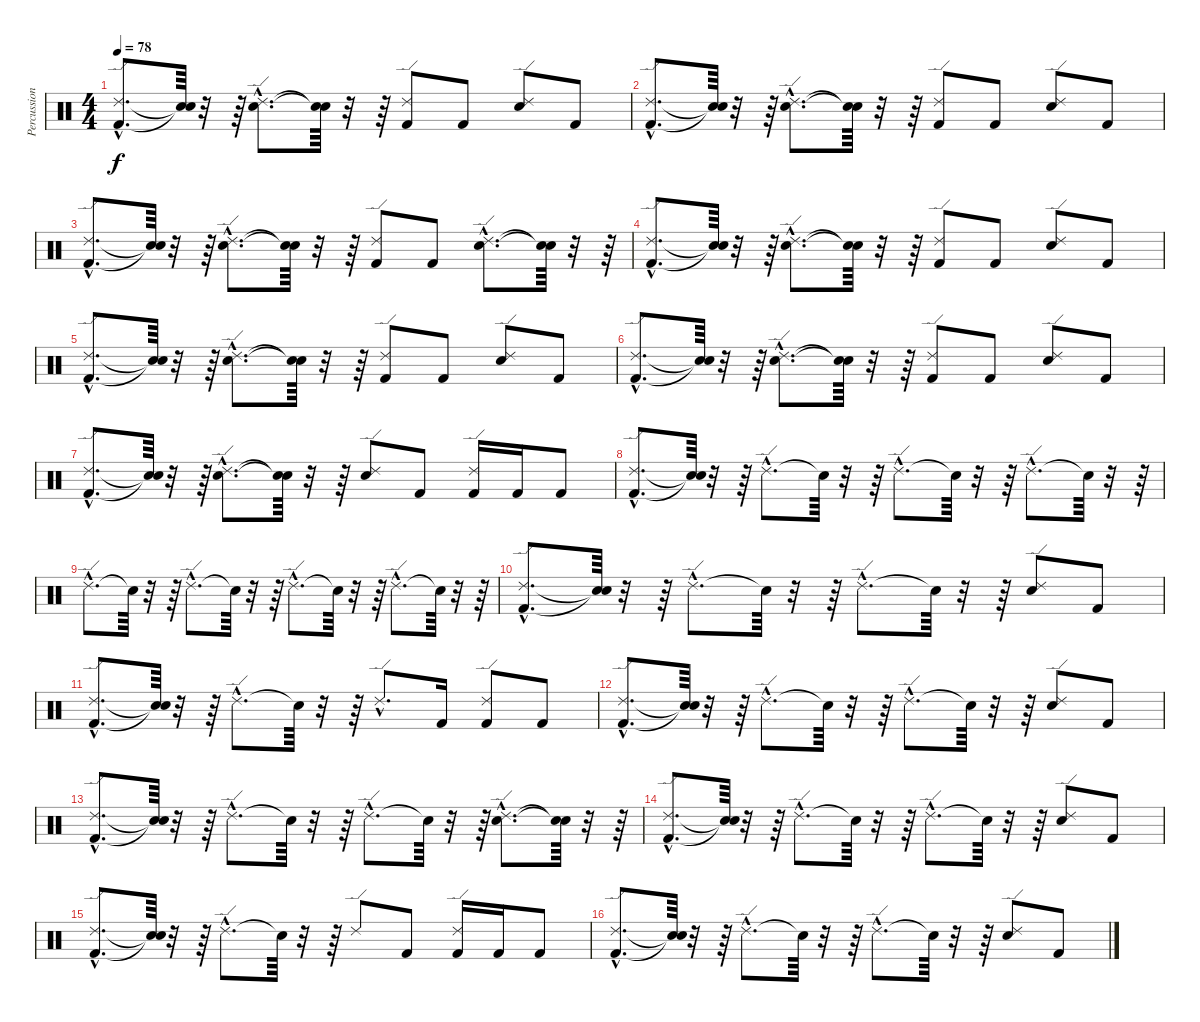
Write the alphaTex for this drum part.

\track ("Percussion" "Percussion") {instrument percussion}
\staff {score}
\articulation defaults
\ts (4 4)
\tempo 78
\clef neutral
\ks c
("Kick (hit) 2"{hac} "Ride (edge) 2"{hac}).8{d dy f} ("Snare (hit)"{t} "Snare (hit)"{t}).64 r.32 r.64 ("Snare (hit) 2"{hac} "Ride (edge) 2"{hac}).8{d} ("Snare (hit)"{t} "Snare (hit)"{t}).64 r.32 r.64 ("Kick (hit) 2" "Ride (edge) 2").8 "Kick (hit) 2".8 ("Snare (hit) 2" "Ride (edge) 2").8 "Kick (hit) 2".8 |
("Kick (hit) 2"{hac} "Ride (edge) 2"{hac}).8{d} ("Snare (hit)"{t} "Snare (hit)"{t}).64 r.32 r.64 ("Snare (hit) 2"{hac} "Ride (edge) 2"{hac}).8{d} ("Snare (hit)"{t} "Snare (hit)"{t}).64 r.32 r.64 ("Kick (hit) 2" "Ride (edge) 2").8 "Kick (hit) 2".8 ("Snare (hit) 2" "Ride (edge) 2").8 "Kick (hit) 2".8 |
("Kick (hit) 2"{hac} "Ride (edge) 2"{hac}).8{d} ("Snare (hit)"{t} "Snare (hit)"{t}).64 r.32 r.64 ("Snare (hit) 2"{hac} "Ride (edge) 2"{hac}).8{d} ("Snare (hit)"{t} "Snare (hit)"{t}).64 r.32 r.64 ("Kick (hit) 2" "Ride (edge) 2").8 "Kick (hit) 2".8 ("Snare (hit) 2"{hac} "Ride (edge) 2"{hac}).8{d} ("Snare (hit)"{t} "Snare (hit)"{t}).64 r.32 r.64 |
("Kick (hit) 2"{hac} "Ride (edge) 2"{hac}).8{d} ("Snare (hit)"{t} "Snare (hit)"{t}).64 r.32 r.64 ("Snare (hit) 2"{hac} "Ride (edge) 2"{hac}).8{d} ("Snare (hit)"{t} "Snare (hit)"{t}).64 r.32 r.64 ("Kick (hit) 2" "Ride (edge) 2").8 "Kick (hit) 2".8 ("Snare (hit) 2" "Ride (edge) 2").8 "Kick (hit) 2".8 |
("Kick (hit) 2"{hac} "Ride (edge) 2"{hac}).8{d} ("Snare (hit)"{t} "Snare (hit)"{t}).64 r.32 r.64 ("Snare (hit) 2"{hac} "Ride (edge) 2"{hac}).8{d} ("Snare (hit)"{t} "Snare (hit)"{t}).64 r.32 r.64 ("Kick (hit) 2" "Ride (edge) 2").8 "Kick (hit) 2".8 ("Snare (hit) 2" "Ride (edge) 2").8 "Kick (hit) 2".8 |
("Kick (hit) 2"{hac} "Ride (edge) 2"{hac}).8{d} ("Snare (hit)"{t} "Snare (hit)"{t}).64 r.32 r.64 ("Snare (hit) 2"{hac} "Ride (edge) 2"{hac}).8{d} ("Snare (hit)"{t} "Snare (hit)"{t}).64 r.32 r.64 ("Kick (hit) 2" "Ride (edge) 2").8 "Kick (hit) 2".8 ("Snare (hit) 2" "Ride (edge) 2").8 "Kick (hit) 2".8 |
("Kick (hit) 2"{hac} "Ride (edge) 2"{hac}).8{d} ("Snare (hit)"{t} "Snare (hit)"{t}).64 r.32 r.64 ("Snare (hit) 2"{hac} "Ride (edge) 2"{hac}).8{d} ("Snare (hit)"{t} "Snare (hit)"{t}).64 r.32 r.64 ("Snare (hit) 2" "Ride (edge) 2").8 "Kick (hit) 2".8 ("Kick (hit) 2" "Ride (edge) 2").16 "Kick (hit) 2".16 "Kick (hit) 2".8 |
("Kick (hit) 2"{hac} "Ride (edge) 2"{hac}).8{d} ("Snare (hit)"{t} "Snare (hit)"{t}).64 r.32 r.64 "Ride (edge) 2"{hac}.8{d} "Snare (hit)"{t}.64 r.32 r.64 "Ride (edge) 2"{hac}.8{d} "Snare (hit)"{t}.64 r.32 r.64 "Ride (edge) 2"{hac}.8{d} "Snare (hit)"{t}.64 r.32 r.64 |
"Ride (edge) 2"{hac}.8{d} "Snare (hit)"{t}.64 r.32 r.64 "Ride (edge) 2"{hac}.8{d} "Snare (hit)"{t}.64 r.32 r.64 "Ride (edge) 2"{hac}.8{d} "Snare (hit)"{t}.64 r.32 r.64 "Ride (edge) 2"{hac}.8{d} "Snare (hit)"{t}.64 r.32 r.64 |
("Kick (hit) 2"{hac} "Ride (edge) 2"{hac}).8{d} ("Snare (hit)"{t} "Snare (hit)"{t}).64 r.32 r.64 "Ride (edge) 2"{hac}.8{d} "Snare (hit)"{t}.64 r.32 r.64 "Ride (edge) 2"{hac}.8{d} "Snare (hit)"{t}.64 r.32 r.64 ("Snare (hit) 2" "Ride (edge) 2").8 "Kick (hit) 2".8 |
("Kick (hit) 2"{hac} "Ride (edge) 2"{hac}).8{d} ("Snare (hit)"{t} "Snare (hit)"{t}).64 r.32 r.64 "Ride (edge) 2"{hac}.8{d} "Snare (hit)"{t}.64 r.32 r.64 "Ride (edge) 2"{hac}.8{d} "Kick (hit) 2".16 ("Kick (hit) 2" "Ride (edge) 2").8 "Kick (hit) 2".8 |
("Kick (hit) 2"{hac} "Ride (edge) 2"{hac}).8{d} ("Snare (hit)"{t} "Snare (hit)"{t}).64 r.32 r.64 "Ride (edge) 2"{hac}.8{d} "Snare (hit)"{t}.64 r.32 r.64 "Ride (edge) 2"{hac}.8{d} "Snare (hit)"{t}.64 r.32 r.64 ("Snare (hit) 2" "Ride (edge) 2").8 "Kick (hit) 2".8 |
("Kick (hit) 2"{hac} "Ride (edge) 2"{hac}).8{d} ("Snare (hit)"{t} "Snare (hit)"{t}).64 r.32 r.64 "Ride (edge) 2"{hac}.8{d} "Snare (hit)"{t}.64 r.32 r.64 "Ride (edge) 2"{hac}.8{d} "Snare (hit)"{t}.64 r.32 r.64 ("Snare (hit) 2"{hac} "Ride (edge) 2"{hac}).8{d} ("Snare (hit)"{t} "Snare (hit)"{t}).64 r.32 r.64 |
("Kick (hit) 2"{hac} "Ride (edge) 2"{hac}).8{d} ("Snare (hit)"{t} "Snare (hit)"{t}).64 r.32 r.64 "Ride (edge) 2"{hac}.8{d} "Snare (hit)"{t}.64 r.32 r.64 "Ride (edge) 2"{hac}.8{d} "Snare (hit)"{t}.64 r.32 r.64 ("Snare (hit) 2" "Ride (edge) 2").8 "Kick (hit) 2".8 |
("Kick (hit) 2"{hac} "Ride (edge) 2"{hac}).8{d} ("Snare (hit)"{t} "Snare (hit)"{t}).64 r.32 r.64 "Ride (edge) 2"{hac}.8{d} "Snare (hit)"{t}.64 r.32 r.64 "Ride (edge) 2".8 "Kick (hit) 2".8 ("Kick (hit) 2" "Ride (edge) 2").16 "Kick (hit) 2".16 "Kick (hit) 2".8 |
("Kick (hit) 2"{hac} "Ride (edge) 2"{hac}).8{d} ("Snare (hit)"{t} "Snare (hit)"{t}).64 r.32 r.64 "Ride (edge) 2"{hac}.8{d} "Snare (hit)"{t}.64 r.32 r.64 "Ride (edge) 2"{hac}.8{d} "Snare (hit)"{t}.64 r.32 r.64 ("Snare (hit) 2" "Ride (edge) 2").8 "Kick (hit) 2".8
